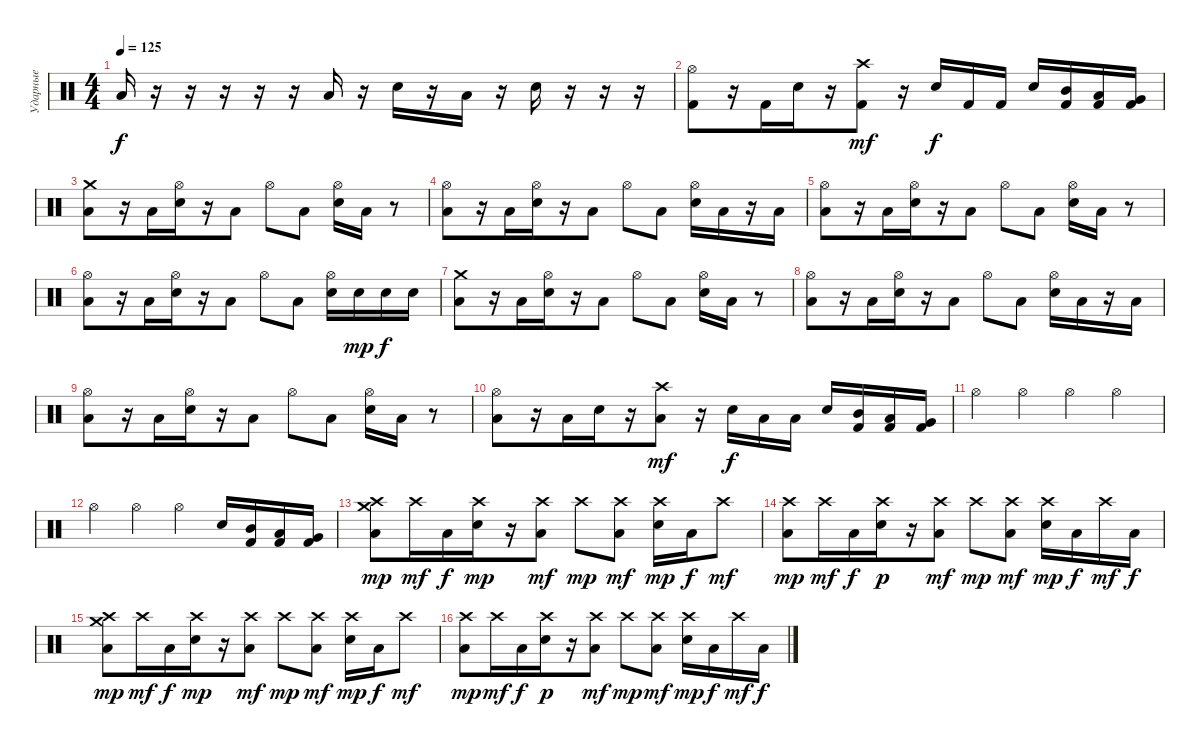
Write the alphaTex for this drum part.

\track ("Ударные" "Ударные") {instrument percussion}
\staff {score}
\articulation defaults
\ts (4 4)
\tempo 125
\clef neutral
\ks c "Low Floor Tom (hit)".16{dy f}
r.16 r.16 r.16{beam merge} r.16 r.16 "Low Floor Tom (hit)".16 r.16 "Electric Snare (hit)".16 r.16 "Low Floor Tom (hit)".16 r.16 "Electric Snare (hit)".16 r.16 r.16 r.16 |
("Hi-Hat (open)" "Kick (hit) 2").8 r.16 "Kick (hit) 2".16{beam merge} "Electric Snare (hit)".16 r.16 ("Crash high (hit)" "Kick (hit) 2").8{dy mf} r.16 "Electric Snare (hit)".16{dy f} "Kick (hit) 2".16 "Kick (hit) 2".16 "Electric Snare (hit)".16 ("Mid Tom (hit)" "Kick (hit) 2").16 ("Low Tom (hit)" "Kick (hit) 2").16 ("Very Low Tom (hit)" "Kick (hit) 2").16 |
("Crash medium (hit)" "Low Floor Tom (hit)").8 r.16 "Low Floor Tom (hit)".16{beam merge} ("Hi-Hat (open)" "Electric Snare (hit)").16 r.16 "Low Floor Tom (hit)".8 "Hi-Hat (open)".8 "Low Floor Tom (hit)".8 ("Hi-Hat (open)" "Electric Snare (hit)").16 "Low Floor Tom (hit)".16 r.8 |
("Hi-Hat (open)" "Low Floor Tom (hit)").8 r.16 "Low Floor Tom (hit)".16{beam merge} ("Hi-Hat (open)" "Electric Snare (hit)").16 r.16 "Low Floor Tom (hit)".8 "Hi-Hat (open)".8 "Low Floor Tom (hit)".8 ("Hi-Hat (open)" "Electric Snare (hit)").16 "Low Floor Tom (hit)".16 r.16 "Low Floor Tom (hit)".16 |
("Hi-Hat (open)" "Low Floor Tom (hit)").8 r.16 "Low Floor Tom (hit)".16{beam merge} ("Hi-Hat (open)" "Electric Snare (hit)").16 r.16 "Low Floor Tom (hit)".8 "Hi-Hat (open)".8 "Low Floor Tom (hit)".8 ("Hi-Hat (open)" "Electric Snare (hit)").16 "Low Floor Tom (hit)".16 r.8 |
("Hi-Hat (open)" "Low Floor Tom (hit)").8 r.16 "Low Floor Tom (hit)".16{beam merge} ("Hi-Hat (open)" "Electric Snare (hit)").16 r.16 "Low Floor Tom (hit)".8 "Hi-Hat (open)".8 "Low Floor Tom (hit)".8 ("Hi-Hat (open)" "Electric Snare (hit)").16 "Electric Snare (hit)".16{dy mp} "Electric Snare (hit)".16{dy f} "Electric Snare (hit)".16 |
("Crash medium (hit)" "Low Floor Tom (hit)").8 r.16 "Low Floor Tom (hit)".16{beam merge} ("Hi-Hat (open)" "Electric Snare (hit)").16 r.16 "Low Floor Tom (hit)".8 "Hi-Hat (open)".8 "Low Floor Tom (hit)".8 ("Hi-Hat (open)" "Electric Snare (hit)").16 "Low Floor Tom (hit)".16 r.8 |
("Hi-Hat (open)" "Low Floor Tom (hit)").8 r.16 "Low Floor Tom (hit)".16{beam merge} ("Hi-Hat (open)" "Electric Snare (hit)").16 r.16 "Low Floor Tom (hit)".8 "Hi-Hat (open)".8 "Low Floor Tom (hit)".8 ("Hi-Hat (open)" "Electric Snare (hit)").16 "Low Floor Tom (hit)".16 r.16 "Low Floor Tom (hit)".16 |
("Hi-Hat (open)" "Low Floor Tom (hit)").8 r.16 "Low Floor Tom (hit)".16{beam merge} ("Hi-Hat (open)" "Electric Snare (hit)").16 r.16 "Low Floor Tom (hit)".8 "Hi-Hat (open)".8 "Low Floor Tom (hit)".8 ("Hi-Hat (open)" "Electric Snare (hit)").16 "Low Floor Tom (hit)".16 r.8 |
("Hi-Hat (open)" "Low Floor Tom (hit)").8 r.16 "Low Floor Tom (hit)".16{beam merge} "Electric Snare (hit)".16 r.16 ("Crash high (hit)" "Low Floor Tom (hit)").8{dy mf} r.16 "Electric Snare (hit)".16{dy f} "Low Floor Tom (hit)".16 "Low Floor Tom (hit)".16 "Electric Snare (hit)".16 ("Mid Tom (hit)" "Kick (hit) 2").16 ("Low Tom (hit)" "Kick (hit) 2").16 ("Very Low Tom (hit)" "Kick (hit) 2").16 |
"Hi-Hat (open)".4 "Hi-Hat (open)".4 "Hi-Hat (open)".4 "Hi-Hat (open)".4 |
"Hi-Hat (open)".4 "Hi-Hat (open)".4 "Hi-Hat (open)".4 "Electric Snare (hit)".16 ("Mid Tom (hit)" "Kick (hit) 2").16 ("Low Tom (hit)" "Kick (hit) 2").16 ("Very Low Tom (hit)" "Kick (hit) 2").16 |
("Crash medium (hit)" "Crash high (hit)" "Low Floor Tom (hit)").8{dy mp} "Crash high (hit)".16{dy mf} "Low Floor Tom (hit)".16{dy f beam merge} ("Crash high (hit)" "Electric Snare (hit)").16{dy mp} r.16 ("Crash high (hit)" "Low Floor Tom (hit)").8{dy mf} "Crash high (hit)".8{dy mp} ("Crash high (hit)" "Low Floor Tom (hit)").8{dy mf} ("Crash high (hit)" "Electric Snare (hit)").16{dy mp} "Low Floor Tom (hit)".16{dy f} "Crash high (hit)".8{dy mf} |
("Crash high (hit)" "Low Floor Tom (hit)").8{dy mp} "Crash high (hit)".16{dy mf} "Low Floor Tom (hit)".16{dy f beam merge} ("Crash high (hit)" "Electric Snare (hit)").16{dy p} r.16 ("Crash high (hit)" "Low Floor Tom (hit)").8{dy mf} "Crash high (hit)".8{dy mp} ("Crash high (hit)" "Low Floor Tom (hit)").8{dy mf} ("Crash high (hit)" "Electric Snare (hit)").16{dy mp} "Low Floor Tom (hit)".16{dy f} "Crash high (hit)".16{dy mf} "Low Floor Tom (hit)".16{dy f} |
("Crash medium (hit)" "Crash high (hit)" "Low Floor Tom (hit)").8{dy mp} "Crash high (hit)".16{dy mf} "Low Floor Tom (hit)".16{dy f beam merge} ("Crash high (hit)" "Electric Snare (hit)").16{dy mp} r.16 ("Crash high (hit)" "Low Floor Tom (hit)").8{dy mf} "Crash high (hit)".8{dy mp} ("Crash high (hit)" "Low Floor Tom (hit)").8{dy mf} ("Crash high (hit)" "Electric Snare (hit)").16{dy mp} "Low Floor Tom (hit)".16{dy f} "Crash high (hit)".8{dy mf} |
("Crash high (hit)" "Low Floor Tom (hit)").8{dy mp} "Crash high (hit)".16{dy mf} "Low Floor Tom (hit)".16{dy f beam merge} ("Crash high (hit)" "Electric Snare (hit)").16{dy p} r.16 ("Crash high (hit)" "Low Floor Tom (hit)").8{dy mf} "Crash high (hit)".8{dy mp} ("Crash high (hit)" "Low Floor Tom (hit)").8{dy mf} ("Crash high (hit)" "Electric Snare (hit)").16{dy mp} "Low Floor Tom (hit)".16{dy f} "Crash high (hit)".16{dy mf} "Low Floor Tom (hit)".16{dy f}
